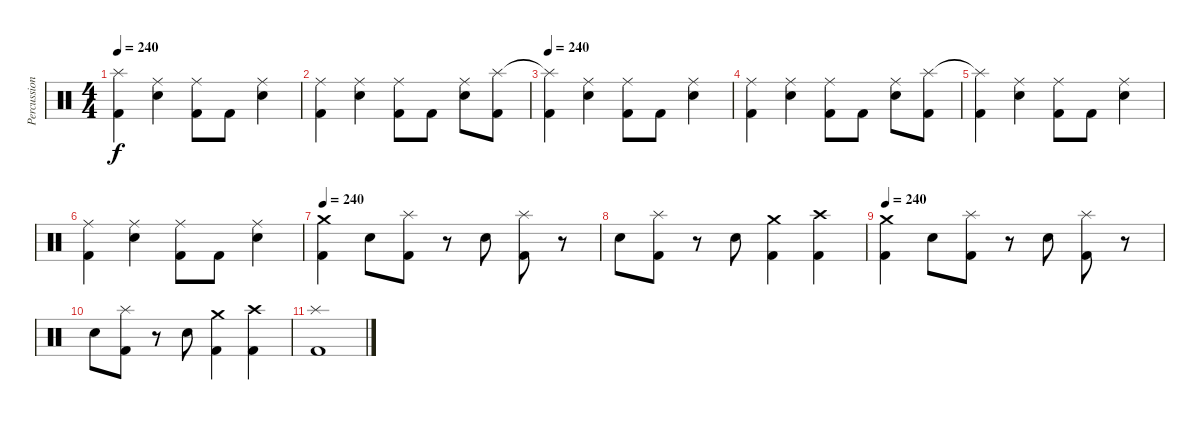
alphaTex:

\track ("Percussions" "Percussion") {instrument percussion}
\staff {score}
\articulation defaults
\ts (4 4)
\tempo 240
\clef neutral
\ks c
("Splash (hit)"{t} "Kick (hit) 2").4{dy f} ("Ride (middle)" "Electric Snare (hit)").4 ("Ride (middle)" "Kick (hit) 2").8 "Kick (hit) 2".8 ("Ride (middle)" "Electric Snare (hit)").4 |
("Ride (middle)" "Kick (hit) 2").4 ("Ride (middle)" "Electric Snare (hit)").4 ("Ride (middle)" "Kick (hit) 2").8 "Kick (hit) 2".8 ("Ride (middle)" "Electric Snare (hit)").8 ("Splash (hit)" "Kick (hit) 2").8 |
\tempo 240
("Splash (hit)"{t} "Kick (hit) 2").4 ("Ride (middle)" "Electric Snare (hit)").4 ("Ride (middle)" "Kick (hit) 2").8 "Kick (hit) 2".8 ("Ride (middle)" "Electric Snare (hit)").4 |
("Ride (middle)" "Kick (hit) 2").4 ("Ride (middle)" "Electric Snare (hit)").4 ("Ride (middle)" "Kick (hit) 2").8 "Kick (hit) 2".8 ("Ride (middle)" "Electric Snare (hit)").8 ("Splash (hit)" "Kick (hit) 2").8 |
("Splash (hit)"{t} "Kick (hit) 2").4 ("Ride (middle)" "Electric Snare (hit)").4 ("Ride (middle)" "Kick (hit) 2").8 "Kick (hit) 2".8 ("Ride (middle)" "Electric Snare (hit)").4 |
("Ride (middle)" "Kick (hit) 2").4 ("Ride (middle)" "Electric Snare (hit)").4 ("Ride (middle)" "Kick (hit) 2").8 "Kick (hit) 2".8 ("Ride (middle)" "Electric Snare (hit)").4 |
\tempo 240
("Crash medium (hit)" "Kick (hit) 2").4 "Electric Snare (hit)".8 ("Splash (hit)" "Kick (hit) 2").8 r.8 "Electric Snare (hit)".8 ("Splash (hit)" "Kick (hit) 2").8 r.8 |
"Electric Snare (hit)".8 ("Splash (hit)" "Kick (hit) 2").8 r.8 "Electric Snare (hit)".8 ("Crash medium (hit)" "Kick (hit) 2").4 ("Crash high (hit)" "Kick (hit) 2").4 |
\tempo 240
("Crash medium (hit)" "Kick (hit) 2").4 "Electric Snare (hit)".8 ("Splash (hit)" "Kick (hit) 2").8 r.8 "Electric Snare (hit)".8 ("Splash (hit)" "Kick (hit) 2").8 r.8 |
"Electric Snare (hit)".8 ("Splash (hit)" "Kick (hit) 2").8 r.8 "Electric Snare (hit)".8 ("Crash medium (hit)" "Kick (hit) 2").4 ("Crash high (hit)" "Kick (hit) 2").4 |
("Splash (hit)" "Kick (hit) 2").1
